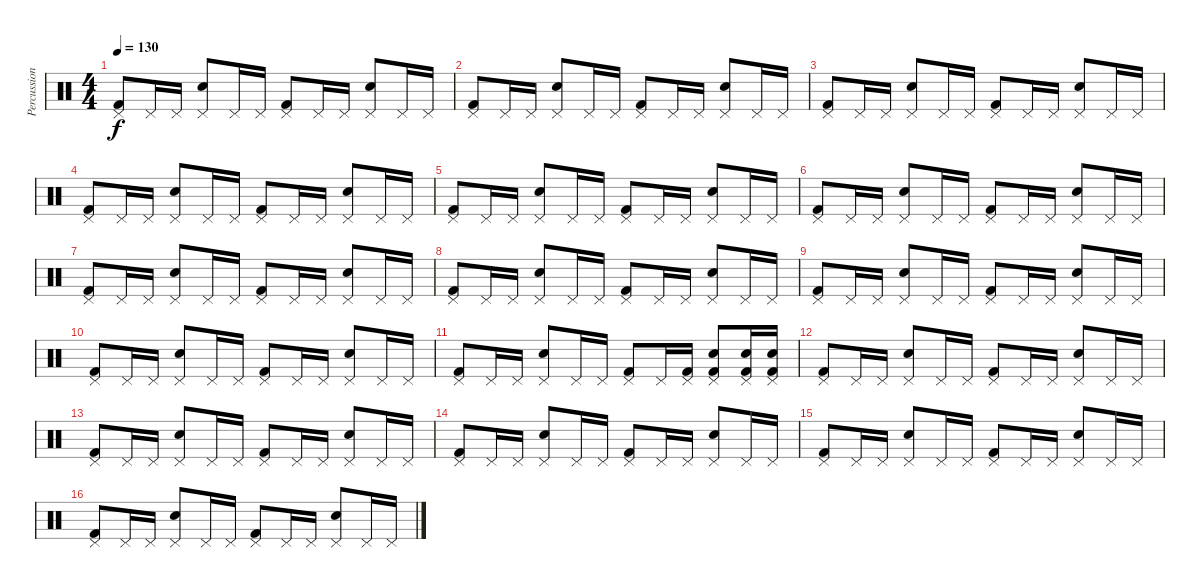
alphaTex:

\track ("Percussion" "Percussion") {instrument percussion}
\staff {score}
\articulation defaults
\ts (4 4)
\tempo 130
\clef neutral
\ks c
("Pedal Hi-Hat (hit)" "Kick (hit) 2").8{dy f} "Pedal Hi-Hat (hit)".16 "Pedal Hi-Hat (hit)".16 ("Pedal Hi-Hat (hit)" "Snare (hit) 2").8 "Pedal Hi-Hat (hit)".16 "Pedal Hi-Hat (hit)".16 ("Pedal Hi-Hat (hit)" "Kick (hit) 2").8 "Pedal Hi-Hat (hit)".16 "Pedal Hi-Hat (hit)".16 ("Pedal Hi-Hat (hit)" "Snare (hit) 2").8 "Pedal Hi-Hat (hit)".16 "Pedal Hi-Hat (hit)".16 |
("Pedal Hi-Hat (hit)" "Kick (hit) 2").8 "Pedal Hi-Hat (hit)".16 "Pedal Hi-Hat (hit)".16 ("Pedal Hi-Hat (hit)" "Snare (hit) 2").8 "Pedal Hi-Hat (hit)".16 "Pedal Hi-Hat (hit)".16 ("Pedal Hi-Hat (hit)" "Kick (hit) 2").8 "Pedal Hi-Hat (hit)".16 "Pedal Hi-Hat (hit)".16 ("Pedal Hi-Hat (hit)" "Snare (hit) 2").8 "Pedal Hi-Hat (hit)".16 "Pedal Hi-Hat (hit)".16 |
("Pedal Hi-Hat (hit)" "Kick (hit) 2").8 "Pedal Hi-Hat (hit)".16 "Pedal Hi-Hat (hit)".16 ("Pedal Hi-Hat (hit)" "Snare (hit) 2").8 "Pedal Hi-Hat (hit)".16 "Pedal Hi-Hat (hit)".16 ("Pedal Hi-Hat (hit)" "Kick (hit) 2").8 "Pedal Hi-Hat (hit)".16 "Pedal Hi-Hat (hit)".16 ("Pedal Hi-Hat (hit)" "Snare (hit) 2").8 "Pedal Hi-Hat (hit)".16 "Pedal Hi-Hat (hit)".16 |
("Pedal Hi-Hat (hit)" "Kick (hit) 2").8 "Pedal Hi-Hat (hit)".16 "Pedal Hi-Hat (hit)".16 ("Pedal Hi-Hat (hit)" "Snare (hit) 2").8 "Pedal Hi-Hat (hit)".16 "Pedal Hi-Hat (hit)".16 ("Pedal Hi-Hat (hit)" "Kick (hit) 2").8 "Pedal Hi-Hat (hit)".16 "Pedal Hi-Hat (hit)".16 ("Pedal Hi-Hat (hit)" "Snare (hit) 2").8 "Pedal Hi-Hat (hit)".16 "Pedal Hi-Hat (hit)".16 |
("Pedal Hi-Hat (hit)" "Kick (hit) 2").8 "Pedal Hi-Hat (hit)".16 "Pedal Hi-Hat (hit)".16 ("Pedal Hi-Hat (hit)" "Snare (hit) 2").8 "Pedal Hi-Hat (hit)".16 "Pedal Hi-Hat (hit)".16 ("Pedal Hi-Hat (hit)" "Kick (hit) 2").8 "Pedal Hi-Hat (hit)".16 "Pedal Hi-Hat (hit)".16 ("Pedal Hi-Hat (hit)" "Snare (hit) 2").8 "Pedal Hi-Hat (hit)".16 "Pedal Hi-Hat (hit)".16 |
("Pedal Hi-Hat (hit)" "Kick (hit) 2").8 "Pedal Hi-Hat (hit)".16 "Pedal Hi-Hat (hit)".16 ("Pedal Hi-Hat (hit)" "Snare (hit) 2").8 "Pedal Hi-Hat (hit)".16 "Pedal Hi-Hat (hit)".16 ("Pedal Hi-Hat (hit)" "Kick (hit) 2").8 "Pedal Hi-Hat (hit)".16 "Pedal Hi-Hat (hit)".16 ("Pedal Hi-Hat (hit)" "Snare (hit) 2").8 "Pedal Hi-Hat (hit)".16 "Pedal Hi-Hat (hit)".16 |
("Pedal Hi-Hat (hit)" "Kick (hit) 2").8 "Pedal Hi-Hat (hit)".16 "Pedal Hi-Hat (hit)".16 ("Pedal Hi-Hat (hit)" "Snare (hit) 2").8 "Pedal Hi-Hat (hit)".16 "Pedal Hi-Hat (hit)".16 ("Pedal Hi-Hat (hit)" "Kick (hit) 2").8 "Pedal Hi-Hat (hit)".16 "Pedal Hi-Hat (hit)".16 ("Pedal Hi-Hat (hit)" "Snare (hit) 2").8 "Pedal Hi-Hat (hit)".16 "Pedal Hi-Hat (hit)".16 |
("Pedal Hi-Hat (hit)" "Kick (hit) 2").8 "Pedal Hi-Hat (hit)".16 "Pedal Hi-Hat (hit)".16 ("Pedal Hi-Hat (hit)" "Snare (hit) 2").8 "Pedal Hi-Hat (hit)".16 "Pedal Hi-Hat (hit)".16 ("Pedal Hi-Hat (hit)" "Kick (hit) 2").8 "Pedal Hi-Hat (hit)".16 "Pedal Hi-Hat (hit)".16 ("Pedal Hi-Hat (hit)" "Snare (hit) 2").8 "Pedal Hi-Hat (hit)".16 "Pedal Hi-Hat (hit)".16 |
("Pedal Hi-Hat (hit)" "Kick (hit) 2").8 "Pedal Hi-Hat (hit)".16 "Pedal Hi-Hat (hit)".16 ("Pedal Hi-Hat (hit)" "Snare (hit) 2").8 "Pedal Hi-Hat (hit)".16 "Pedal Hi-Hat (hit)".16 ("Pedal Hi-Hat (hit)" "Kick (hit) 2").8 "Pedal Hi-Hat (hit)".16 "Pedal Hi-Hat (hit)".16 ("Pedal Hi-Hat (hit)" "Snare (hit) 2").8 "Pedal Hi-Hat (hit)".16 "Pedal Hi-Hat (hit)".16 |
("Pedal Hi-Hat (hit)" "Kick (hit) 2").8 "Pedal Hi-Hat (hit)".16 "Pedal Hi-Hat (hit)".16 ("Pedal Hi-Hat (hit)" "Snare (hit) 2").8 "Pedal Hi-Hat (hit)".16 "Pedal Hi-Hat (hit)".16 ("Pedal Hi-Hat (hit)" "Kick (hit) 2").8 "Pedal Hi-Hat (hit)".16 "Pedal Hi-Hat (hit)".16 ("Pedal Hi-Hat (hit)" "Snare (hit) 2").8 "Pedal Hi-Hat (hit)".16 "Pedal Hi-Hat (hit)".16 |
("Pedal Hi-Hat (hit)" "Kick (hit) 2").8 "Pedal Hi-Hat (hit)".16 "Pedal Hi-Hat (hit)".16 ("Pedal Hi-Hat (hit)" "Snare (hit) 2").8 "Pedal Hi-Hat (hit)".16 "Pedal Hi-Hat (hit)".16 ("Pedal Hi-Hat (hit)" "Kick (hit) 2").8 "Pedal Hi-Hat (hit)".16 ("Pedal Hi-Hat (hit)" "Kick (hit) 2").16 ("Pedal Hi-Hat (hit)" "Snare (hit) 2" "Kick (hit) 2").8 ("Pedal Hi-Hat (hit)" "Snare (hit) 2" "Kick (hit) 2").16 ("Pedal Hi-Hat (hit)" "Snare (hit) 2" "Kick (hit) 2").16 |
("Pedal Hi-Hat (hit)" "Kick (hit) 2").8 "Pedal Hi-Hat (hit)".16 "Pedal Hi-Hat (hit)".16 ("Pedal Hi-Hat (hit)" "Snare (hit) 2").8 "Pedal Hi-Hat (hit)".16 "Pedal Hi-Hat (hit)".16 ("Pedal Hi-Hat (hit)" "Kick (hit) 2").8 "Pedal Hi-Hat (hit)".16 "Pedal Hi-Hat (hit)".16 ("Pedal Hi-Hat (hit)" "Snare (hit) 2").8 "Pedal Hi-Hat (hit)".16 "Pedal Hi-Hat (hit)".16 |
("Pedal Hi-Hat (hit)" "Kick (hit) 2").8 "Pedal Hi-Hat (hit)".16 "Pedal Hi-Hat (hit)".16 ("Pedal Hi-Hat (hit)" "Snare (hit) 2").8 "Pedal Hi-Hat (hit)".16 "Pedal Hi-Hat (hit)".16 ("Pedal Hi-Hat (hit)" "Kick (hit) 2").8 "Pedal Hi-Hat (hit)".16 "Pedal Hi-Hat (hit)".16 ("Pedal Hi-Hat (hit)" "Snare (hit) 2").8 "Pedal Hi-Hat (hit)".16 "Pedal Hi-Hat (hit)".16 |
("Pedal Hi-Hat (hit)" "Kick (hit) 2").8 "Pedal Hi-Hat (hit)".16 "Pedal Hi-Hat (hit)".16 ("Pedal Hi-Hat (hit)" "Snare (hit) 2").8 "Pedal Hi-Hat (hit)".16 "Pedal Hi-Hat (hit)".16 ("Pedal Hi-Hat (hit)" "Kick (hit) 2").8 "Pedal Hi-Hat (hit)".16 "Pedal Hi-Hat (hit)".16 ("Pedal Hi-Hat (hit)" "Snare (hit) 2").8 "Pedal Hi-Hat (hit)".16 "Pedal Hi-Hat (hit)".16 |
("Pedal Hi-Hat (hit)" "Kick (hit) 2").8 "Pedal Hi-Hat (hit)".16 "Pedal Hi-Hat (hit)".16 ("Pedal Hi-Hat (hit)" "Snare (hit) 2").8 "Pedal Hi-Hat (hit)".16 "Pedal Hi-Hat (hit)".16 ("Pedal Hi-Hat (hit)" "Kick (hit) 2").8 "Pedal Hi-Hat (hit)".16 "Pedal Hi-Hat (hit)".16 ("Pedal Hi-Hat (hit)" "Snare (hit) 2").8 "Pedal Hi-Hat (hit)".16 "Pedal Hi-Hat (hit)".16 |
("Pedal Hi-Hat (hit)" "Kick (hit) 2").8 "Pedal Hi-Hat (hit)".16 "Pedal Hi-Hat (hit)".16 ("Pedal Hi-Hat (hit)" "Snare (hit) 2").8 "Pedal Hi-Hat (hit)".16 "Pedal Hi-Hat (hit)".16 ("Pedal Hi-Hat (hit)" "Kick (hit) 2").8 "Pedal Hi-Hat (hit)".16 "Pedal Hi-Hat (hit)".16 ("Pedal Hi-Hat (hit)" "Snare (hit) 2").8 "Pedal Hi-Hat (hit)".16 "Pedal Hi-Hat (hit)".16
